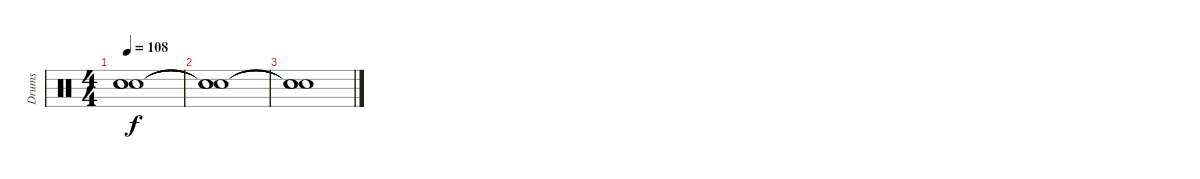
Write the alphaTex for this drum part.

\track ("Drums" "Drums") {instrument percussion}
\staff {score}
\articulation defaults
\ts (4 4)
\tempo 108
\clef neutral
\ks c
("Snare (hit)"{t} "Snare (hit)"{t} "Snare (hit)"{t}).1{dy f} |
("Snare (hit)"{t} "Snare (hit)"{t} "Snare (hit)"{t}).1 |
("Snare (hit)"{t} "Snare (hit)"{t} "Snare (hit)"{t}).1
